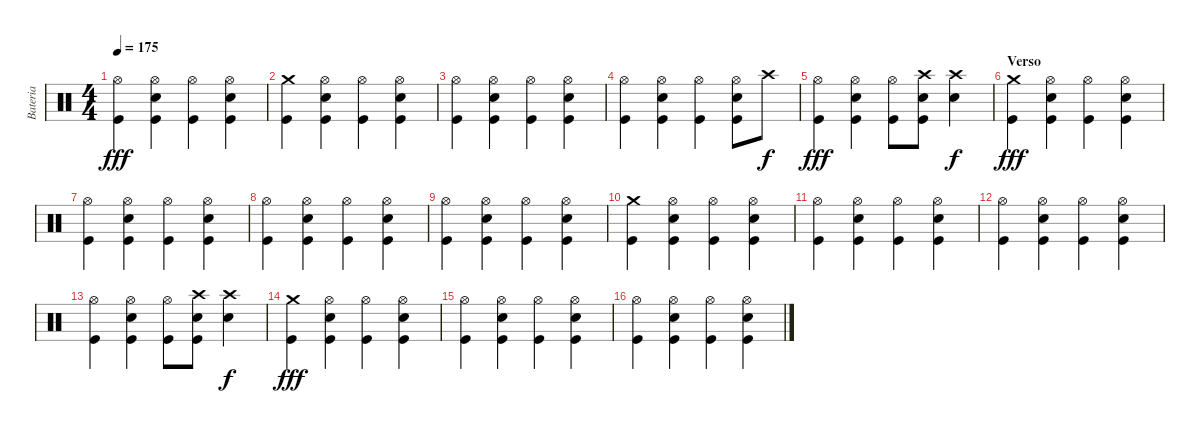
\track ("Bateria" "Bateria") {instrument percussion}
\staff {score}
\articulation defaults
\ts (4 4)
\tempo 175
\clef neutral
\ks c
("Hi-Hat (open)" "Kick (hit)").4{dy fff} ("Hi-Hat (open)" "Electric Snare (hit)" "Kick (hit)").4 ("Hi-Hat (open)" "Kick (hit)").4 ("Hi-Hat (open)" "Electric Snare (hit)" "Kick (hit)").4 |
("Crash medium (hit)" "Kick (hit)").4 ("Hi-Hat (open)" "Electric Snare (hit)" "Kick (hit)").4 ("Hi-Hat (open)" "Kick (hit)").4 ("Hi-Hat (open)" "Electric Snare (hit)" "Kick (hit)").4 |
("Hi-Hat (open)" "Kick (hit)").4 ("Hi-Hat (open)" "Electric Snare (hit)" "Kick (hit)").4 ("Hi-Hat (open)" "Kick (hit)").4 ("Hi-Hat (open)" "Electric Snare (hit)" "Kick (hit)").4 |
("Hi-Hat (open)" "Kick (hit)").4 ("Hi-Hat (open)" "Electric Snare (hit)" "Kick (hit)").4 ("Hi-Hat (open)" "Kick (hit)").4 ("Hi-Hat (open)" "Electric Snare (hit)" "Kick (hit)").8 "Crash high (hit)".8{dy f} |
("Hi-Hat (open)" "Kick (hit)").4{dy fff} ("Hi-Hat (open)" "Electric Snare (hit)" "Kick (hit)").4 ("Hi-Hat (open)" "Kick (hit)").8 ("Crash high (hit)" "Electric Snare (hit)" "Kick (hit)").8 ("Crash high (hit)" "Electric Snare (hit)").4{dy f} |
\section ("" "Verso")
("Crash medium (hit)" "Kick (hit)").4{dy fff} ("Hi-Hat (open)" "Electric Snare (hit)" "Kick (hit)").4 ("Hi-Hat (open)" "Kick (hit)").4 ("Hi-Hat (open)" "Electric Snare (hit)" "Kick (hit)").4 |
("Hi-Hat (open)" "Kick (hit)").4 ("Hi-Hat (open)" "Electric Snare (hit)" "Kick (hit)").4 ("Hi-Hat (open)" "Kick (hit)").4 ("Hi-Hat (open)" "Electric Snare (hit)" "Kick (hit)").4 |
("Hi-Hat (open)" "Kick (hit)").4 ("Hi-Hat (open)" "Electric Snare (hit)" "Kick (hit)").4 ("Hi-Hat (open)" "Kick (hit)").4 ("Hi-Hat (open)" "Electric Snare (hit)" "Kick (hit)").4 |
("Hi-Hat (open)" "Kick (hit)").4 ("Hi-Hat (open)" "Electric Snare (hit)" "Kick (hit)").4 ("Hi-Hat (open)" "Kick (hit)").4 ("Hi-Hat (open)" "Electric Snare (hit)" "Kick (hit)").4 |
("Crash medium (hit)" "Kick (hit)").4 ("Hi-Hat (open)" "Electric Snare (hit)" "Kick (hit)").4 ("Hi-Hat (open)" "Kick (hit)").4 ("Hi-Hat (open)" "Electric Snare (hit)" "Kick (hit)").4 |
("Hi-Hat (open)" "Kick (hit)").4 ("Hi-Hat (open)" "Electric Snare (hit)" "Kick (hit)").4 ("Hi-Hat (open)" "Kick (hit)").4 ("Hi-Hat (open)" "Electric Snare (hit)" "Kick (hit)").4 |
("Hi-Hat (open)" "Kick (hit)").4 ("Hi-Hat (open)" "Electric Snare (hit)" "Kick (hit)").4 ("Hi-Hat (open)" "Kick (hit)").4 ("Hi-Hat (open)" "Electric Snare (hit)" "Kick (hit)").4 |
("Hi-Hat (open)" "Kick (hit)").4 ("Hi-Hat (open)" "Electric Snare (hit)" "Kick (hit)").4 ("Hi-Hat (open)" "Kick (hit)").8 ("Crash high (hit)" "Electric Snare (hit)" "Kick (hit)").8 ("Crash high (hit)" "Electric Snare (hit)").4{dy f} |
("Crash medium (hit)" "Kick (hit)").4{dy fff} ("Hi-Hat (open)" "Electric Snare (hit)" "Kick (hit)").4 ("Hi-Hat (open)" "Kick (hit)").4 ("Hi-Hat (open)" "Electric Snare (hit)" "Kick (hit)").4 |
("Hi-Hat (open)" "Kick (hit)").4 ("Hi-Hat (open)" "Electric Snare (hit)" "Kick (hit)").4 ("Hi-Hat (open)" "Kick (hit)").4 ("Hi-Hat (open)" "Electric Snare (hit)" "Kick (hit)").4 |
("Hi-Hat (open)" "Kick (hit)").4 ("Hi-Hat (open)" "Electric Snare (hit)" "Kick (hit)").4 ("Hi-Hat (open)" "Kick (hit)").4 ("Hi-Hat (open)" "Electric Snare (hit)" "Kick (hit)").4
